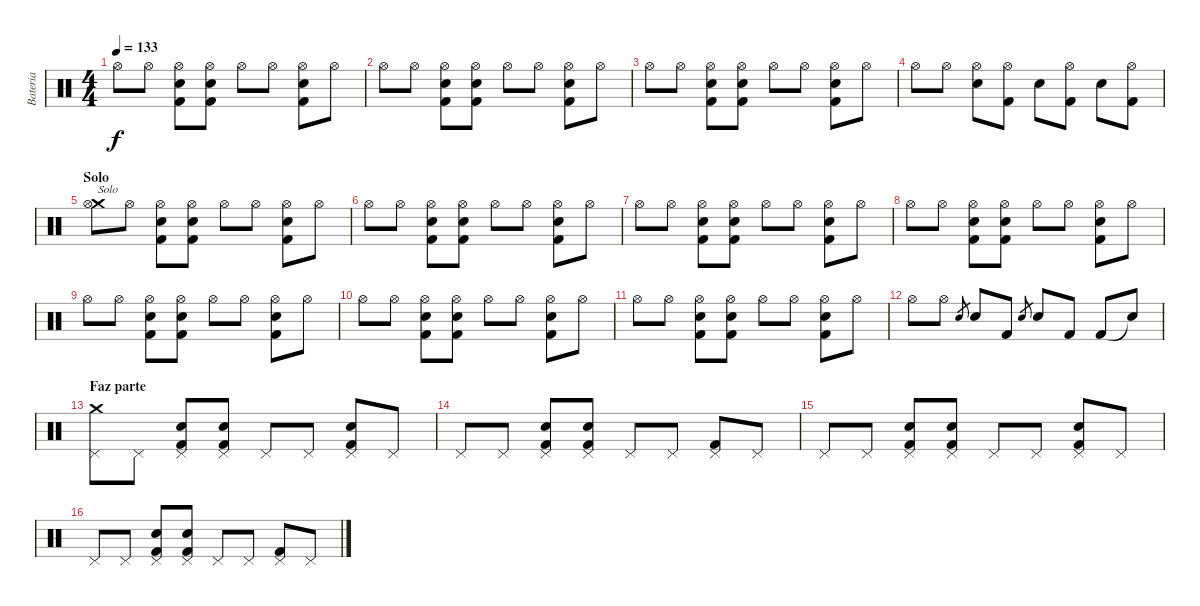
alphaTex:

\track ("Bateria" "Bateria") {instrument percussion}
\staff {score}
\articulation defaults
\ts (4 4)
\tempo 133
\clef neutral
\ks c "Hi-Hat (open)".8{dy f} "Hi-Hat (open)".8
("Kick (hit) 2" "Hi-Hat (open)" "Electric Snare (hit)").8 ("Kick (hit) 2" "Hi-Hat (open)" "Electric Snare (hit)").8 "Hi-Hat (open)".8 "Hi-Hat (open)".8 ("Kick (hit) 2" "Hi-Hat (open)" "Electric Snare (hit)").8 "Hi-Hat (open)".8 |
"Hi-Hat (open)".8 "Hi-Hat (open)".8 ("Kick (hit) 2" "Hi-Hat (open)" "Electric Snare (hit)").8 ("Kick (hit) 2" "Hi-Hat (open)" "Electric Snare (hit)").8 "Hi-Hat (open)".8 "Hi-Hat (open)".8 ("Kick (hit) 2" "Hi-Hat (open)" "Electric Snare (hit)").8 "Hi-Hat (open)".8 |
"Hi-Hat (open)".8 "Hi-Hat (open)".8 ("Kick (hit) 2" "Hi-Hat (open)" "Electric Snare (hit)").8 ("Kick (hit) 2" "Hi-Hat (open)" "Electric Snare (hit)").8 "Hi-Hat (open)".8 "Hi-Hat (open)".8 ("Kick (hit) 2" "Hi-Hat (open)" "Electric Snare (hit)").8 "Hi-Hat (open)".8 |
"Hi-Hat (open)".8 "Hi-Hat (open)".8 ("Hi-Hat (open)" "Electric Snare (hit)").8 ("Kick (hit) 2" "Hi-Hat (open)").8 "Electric Snare (hit)".8 ("Kick (hit) 2" "Hi-Hat (open)").8 "Electric Snare (hit)".8 ("Kick (hit) 2" "Hi-Hat (open)").8 |
\section ("" "Solo")
("Crash medium (hit)" "Hi-Hat (open)").8{txt "Solo"} "Hi-Hat (open)".8 ("Kick (hit) 2" "Hi-Hat (open)" "Electric Snare (hit)").8 ("Kick (hit) 2" "Hi-Hat (open)" "Electric Snare (hit)").8 "Hi-Hat (open)".8 "Hi-Hat (open)".8 ("Kick (hit) 2" "Hi-Hat (open)" "Electric Snare (hit)").8 "Hi-Hat (open)".8 |
"Hi-Hat (open)".8 "Hi-Hat (open)".8 ("Kick (hit) 2" "Hi-Hat (open)" "Electric Snare (hit)").8 ("Kick (hit) 2" "Hi-Hat (open)" "Electric Snare (hit)").8 "Hi-Hat (open)".8 "Hi-Hat (open)".8 ("Kick (hit) 2" "Hi-Hat (open)" "Electric Snare (hit)").8 "Hi-Hat (open)".8 |
"Hi-Hat (open)".8 "Hi-Hat (open)".8 ("Kick (hit) 2" "Hi-Hat (open)" "Electric Snare (hit)").8 ("Kick (hit) 2" "Hi-Hat (open)" "Electric Snare (hit)").8 "Hi-Hat (open)".8 "Hi-Hat (open)".8 ("Kick (hit) 2" "Hi-Hat (open)" "Electric Snare (hit)").8 "Hi-Hat (open)".8 |
"Hi-Hat (open)".8 "Hi-Hat (open)".8 ("Kick (hit) 2" "Hi-Hat (open)" "Electric Snare (hit)").8 ("Kick (hit) 2" "Hi-Hat (open)" "Electric Snare (hit)").8 "Hi-Hat (open)".8 "Hi-Hat (open)".8 ("Kick (hit) 2" "Hi-Hat (open)" "Electric Snare (hit)").8 "Hi-Hat (open)".8 |
"Hi-Hat (open)".8 "Hi-Hat (open)".8 ("Kick (hit) 2" "Hi-Hat (open)" "Electric Snare (hit)").8 ("Kick (hit) 2" "Hi-Hat (open)" "Electric Snare (hit)").8 "Hi-Hat (open)".8 "Hi-Hat (open)".8 ("Kick (hit) 2" "Hi-Hat (open)" "Electric Snare (hit)").8 "Hi-Hat (open)".8 |
"Hi-Hat (open)".8 "Hi-Hat (open)".8 ("Kick (hit) 2" "Hi-Hat (open)" "Electric Snare (hit)").8 ("Kick (hit) 2" "Hi-Hat (open)" "Electric Snare (hit)").8 "Hi-Hat (open)".8 "Hi-Hat (open)".8 ("Kick (hit) 2" "Hi-Hat (open)" "Electric Snare (hit)").8 "Hi-Hat (open)".8 |
"Hi-Hat (open)".8 "Hi-Hat (open)".8 ("Kick (hit) 2" "Hi-Hat (open)" "Electric Snare (hit)").8 ("Kick (hit) 2" "Hi-Hat (open)" "Electric Snare (hit)").8 "Hi-Hat (open)".8 "Hi-Hat (open)".8 ("Kick (hit) 2" "Hi-Hat (open)" "Electric Snare (hit)").8 "Hi-Hat (open)".8 |
"Hi-Hat (open)".8 "Hi-Hat (open)".8 "Electric Snare (hit)".8{gr} "Electric Snare (hit)".8 "Kick (hit) 2".8 "Electric Snare (hit)".8{gr} "Electric Snare (hit)".8 "Kick (hit) 2".8 "Kick (hit) 2".8 "Snare (hit)"{t}.8 |
\section ("" "Faz parte")
("Crash medium (hit)" "Pedal Hi-Hat (hit)").8 "Pedal Hi-Hat (hit)".8 ("Kick (hit) 2" "Pedal Hi-Hat (hit)" "Electric Snare (hit)").8 ("Kick (hit) 2" "Pedal Hi-Hat (hit)" "Electric Snare (hit)").8 "Pedal Hi-Hat (hit)".8 "Pedal Hi-Hat (hit)".8 ("Kick (hit) 2" "Pedal Hi-Hat (hit)" "Electric Snare (hit)").8 "Pedal Hi-Hat (hit)".8 |
"Pedal Hi-Hat (hit)".8 "Pedal Hi-Hat (hit)".8 ("Kick (hit) 2" "Pedal Hi-Hat (hit)" "Electric Snare (hit)").8 ("Kick (hit) 2" "Pedal Hi-Hat (hit)" "Electric Snare (hit)").8 "Pedal Hi-Hat (hit)".8 "Pedal Hi-Hat (hit)".8 ("Kick (hit) 2" "Pedal Hi-Hat (hit)").8 "Pedal Hi-Hat (hit)".8 |
"Pedal Hi-Hat (hit)".8 "Pedal Hi-Hat (hit)".8 ("Kick (hit) 2" "Pedal Hi-Hat (hit)" "Electric Snare (hit)").8 ("Kick (hit) 2" "Pedal Hi-Hat (hit)" "Electric Snare (hit)").8 "Pedal Hi-Hat (hit)".8 "Pedal Hi-Hat (hit)".8 ("Kick (hit) 2" "Pedal Hi-Hat (hit)" "Electric Snare (hit)").8 "Pedal Hi-Hat (hit)".8 |
"Pedal Hi-Hat (hit)".8 "Pedal Hi-Hat (hit)".8 ("Kick (hit) 2" "Pedal Hi-Hat (hit)" "Electric Snare (hit)").8 ("Kick (hit) 2" "Pedal Hi-Hat (hit)" "Electric Snare (hit)").8 "Pedal Hi-Hat (hit)".8 "Pedal Hi-Hat (hit)".8 ("Kick (hit) 2" "Pedal Hi-Hat (hit)").8 "Pedal Hi-Hat (hit)".8
